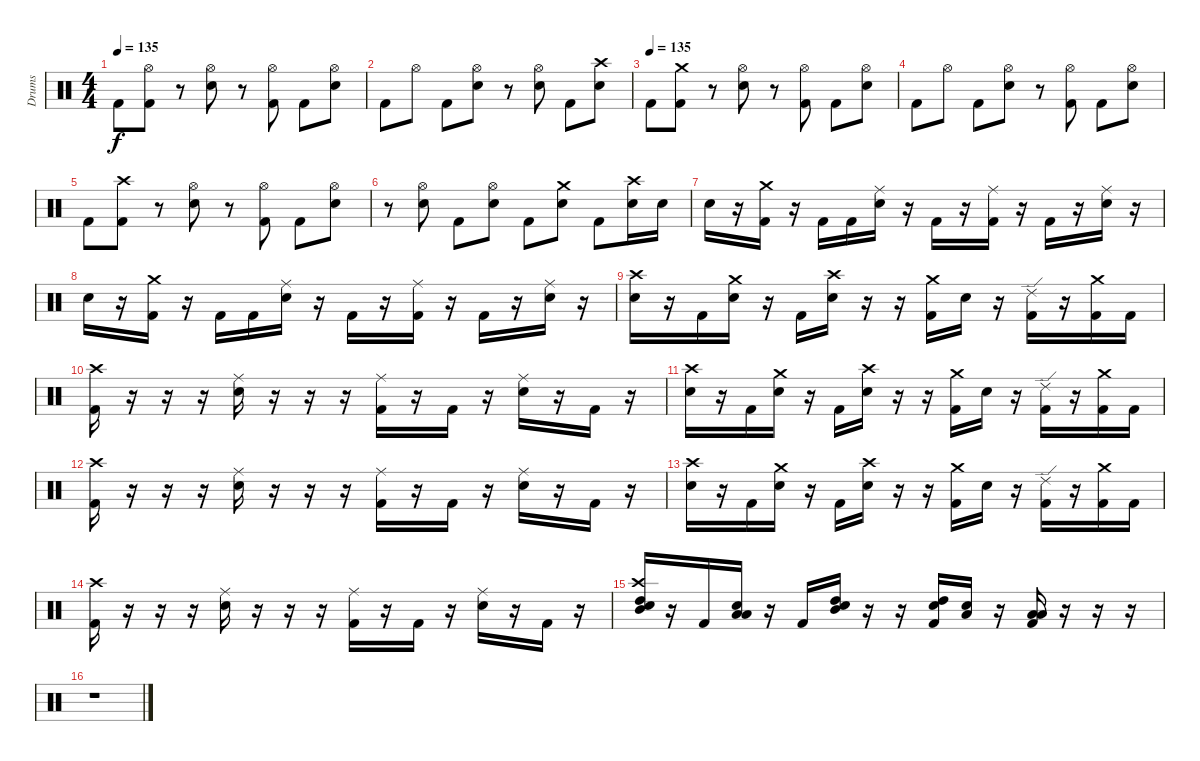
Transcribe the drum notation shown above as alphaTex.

\track ("Drums" "Drums") {instrument percussion}
\staff {score}
\articulation defaults
\ts (4 4)
\tempo 135
\clef neutral
\ks c "Kick (hit) 2".8{dy f}
("Hi-Hat (open)" "Kick (hit) 2").8 r.8 ("Hi-Hat (open)" "Snare (hit) 2").8 r.8 ("Hi-Hat (open)" "Kick (hit) 2").8 "Kick (hit) 2".8 ("Hi-Hat (open)" "Snare (hit) 2").8 |
"Kick (hit) 2".8 "Hi-Hat (open)".8 "Kick (hit) 2".8 ("Hi-Hat (open)" "Snare (hit) 2").8 r.8 ("Hi-Hat (open)" "Snare (hit) 2").8 "Kick (hit) 2".8 ("Crash high (hit)" "Snare (hit) 2").8 |
\tempo (135)
"Kick (hit) 2".8 ("Crash medium (hit)" "Kick (hit) 2").8 r.8 ("Hi-Hat (open)" "Snare (hit) 2").8 r.8 ("Hi-Hat (open)" "Kick (hit) 2").8 "Kick (hit) 2".8 ("Hi-Hat (open)" "Snare (hit) 2").8 |
"Kick (hit) 2".8 "Hi-Hat (open)".8 "Kick (hit) 2".8 ("Hi-Hat (open)" "Snare (hit) 2").8 r.8 ("Hi-Hat (open)" "Kick (hit) 2").8 "Kick (hit) 2".8 ("Hi-Hat (open)" "Snare (hit) 2").8 |
"Kick (hit) 2".8 ("Crash high (hit)" "Kick (hit) 2").8 r.8 ("Hi-Hat (open)" "Snare (hit) 2").8 r.8 ("Hi-Hat (open)" "Kick (hit) 2").8 "Kick (hit) 2".8 ("Hi-Hat (open)" "Snare (hit) 2").8 |
r.8 ("Hi-Hat (open)" "Snare (hit) 2").8 "Kick (hit) 2".8 ("Hi-Hat (open)" "Snare (hit) 2").8 "Kick (hit) 2".8 ("Crash medium (hit)" "Snare (hit) 2").8 "Kick (hit) 2".8 ("Crash high (hit)" "Snare (hit) 2").16 "Snare (hit) 2".16 |
"Snare (hit) 2".16 r.16 ("Crash medium (hit)" "Kick (hit) 2").16 r.16 "Kick (hit) 2".16 "Kick (hit) 2".16 ("Ride (middle)" "Snare (hit) 2").16 r.16 "Kick (hit) 2".16 r.16 ("Ride (middle)" "Kick (hit) 2").16 r.16 "Kick (hit) 2".16 r.16 ("Ride (middle)" "Snare (hit) 2").16 r.16 |
"Snare (hit) 2".16 r.16 ("Crash medium (hit)" "Kick (hit) 2").16 r.16 "Kick (hit) 2".16 "Kick (hit) 2".16 ("Ride (middle)" "Snare (hit) 2").16 r.16 "Kick (hit) 2".16 r.16 ("Ride (middle)" "Kick (hit) 2").16 r.16 "Kick (hit) 2".16 r.16 ("Ride (middle)" "Snare (hit) 2").16 r.16 |
("Crash high (hit)" "Snare (hit) 2").16 r.16 "Kick (hit) 2".16 ("Crash medium (hit)" "Snare (hit) 2").16 r.16 "Kick (hit) 2".16 ("Crash high (hit)" "Snare (hit) 2").16 r.16 r.16 ("Crash medium (hit)" "Kick (hit) 2").16 "Snare (hit) 2".16 r.16 ("Ride (edge) 2" "Kick (hit) 2").16 r.16 ("Crash medium (hit)" "Kick (hit) 2").16 "Kick (hit) 2".16 |
("Crash high (hit)" "Kick (hit) 2").16 r.16 r.16 r.16 ("Ride (middle)" "Snare (hit) 2").16 r.16 r.16 r.16 ("Ride (middle)" "Kick (hit) 2").16 r.16 "Kick (hit) 2".16 r.16 ("Ride (middle)" "Snare (hit) 2").16 r.16 "Kick (hit) 2".16 r.16 |
("Crash high (hit)" "Snare (hit) 2").16 r.16 "Kick (hit) 2".16 ("Crash medium (hit)" "Snare (hit) 2").16 r.16 "Kick (hit) 2".16 ("Crash high (hit)" "Snare (hit) 2").16 r.16 r.16 ("Crash medium (hit)" "Kick (hit) 2").16 "Snare (hit) 2".16 r.16 ("Ride (edge) 2" "Kick (hit) 2").16 r.16 ("Crash medium (hit)" "Kick (hit) 2").16 "Kick (hit) 2".16 |
("Crash high (hit)" "Kick (hit) 2").16 r.16 r.16 r.16 ("Ride (middle)" "Snare (hit) 2").16 r.16 r.16 r.16 ("Ride (middle)" "Kick (hit) 2").16 r.16 "Kick (hit) 2".16 r.16 ("Ride (middle)" "Snare (hit) 2").16 r.16 "Kick (hit) 2".16 r.16 |
("Crash high (hit)" "Snare (hit) 2").16 r.16 "Kick (hit) 2".16 ("Crash medium (hit)" "Snare (hit) 2").16 r.16 "Kick (hit) 2".16 ("Crash high (hit)" "Snare (hit) 2").16 r.16 r.16 ("Crash medium (hit)" "Kick (hit) 2").16 "Snare (hit) 2".16 r.16 ("Ride (edge) 2" "Kick (hit) 2").16 r.16 ("Crash medium (hit)" "Kick (hit) 2").16 "Kick (hit) 2".16 |
("Crash high (hit)" "Kick (hit) 2").16 r.16 r.16 r.16 ("Ride (middle)" "Snare (hit) 2").16 r.16 r.16 r.16 ("Ride (middle)" "Kick (hit) 2").16 r.16 "Kick (hit) 2".16 r.16 ("Ride (middle)" "Snare (hit) 2").16 r.16 "Kick (hit) 2".16 r.16 |
("Crash high (hit)" "High Tom (hit)" "Mid Tom (hit)" "Snare (hit) 2").16 r.16 "Kick (hit) 2".16 ("Low Floor Tom (hit)" "Low Tom (hit)" "Snare (hit) 2").16 r.16 "Kick (hit) 2".16 ("High Tom (hit)" "Mid Tom (hit)" "Snare (hit) 2").16 r.16 r.16 ("High Tom (hit)" "Snare (hit) 2" "Kick (hit) 2").16 ("Low Tom (hit)" "Snare (hit) 2").16 r.16 ("Low Floor Tom (hit)" "Low Tom (hit)" "Kick (hit) 2").16 r.16 r.16 r.16 |
r.1
